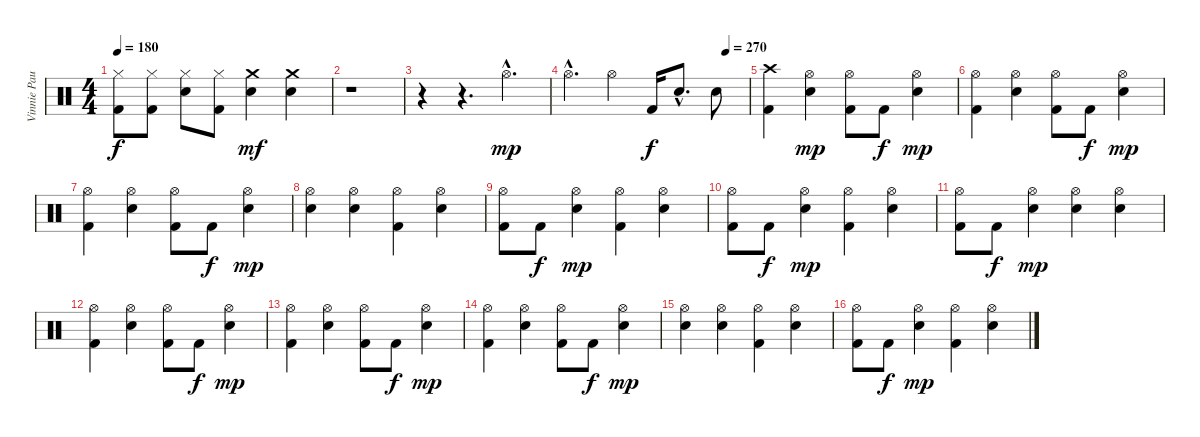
\track ("Vinnie Paul" "Vinnie Pau") {instrument percussion}
\staff {score}
\articulation defaults
\ts (4 4)
\tempo 180
\clef neutral
\ks c
("Hi-Hat (closed)" "Kick (hit) 2").8{dy f} ("Hi-Hat (closed)" "Kick (hit) 2").8 ("Hi-Hat (closed)" "Electric Snare (hit)").8 ("Hi-Hat (closed)" "Kick (hit) 2").8 ("Crash medium (hit)" "Electric Snare (hit)").4{dy mf} ("Crash medium (hit)" "Electric Snare (hit)").4 |
r.1 |
r.4 r.4{d} "Hi-Hat (open)"{hac}.4{d dy mp} |
\tempo (270 0.875)
"Hi-Hat (open)"{hac}.4{d} "Hi-Hat (open)".4 "Kick (hit) 2".16{dy f} "Electric Snare (hit)"{hac}.8{d} "Electric Snare (hit)".8 |
("Crash high (hit)" "Kick (hit) 2").4 ("Hi-Hat (open)" "Electric Snare (hit)").4{dy mp} ("Hi-Hat (open)" "Kick (hit) 2").8 "Kick (hit) 2".8{dy f} ("Hi-Hat (open)" "Electric Snare (hit)").4{dy mp} |
("Hi-Hat (open)" "Kick (hit) 2").4 ("Hi-Hat (open)" "Electric Snare (hit)").4 ("Hi-Hat (open)" "Kick (hit) 2").8 "Kick (hit) 2".8{dy f} ("Hi-Hat (open)" "Electric Snare (hit)").4{dy mp} |
("Hi-Hat (open)" "Kick (hit) 2").4 ("Hi-Hat (open)" "Electric Snare (hit)").4 ("Hi-Hat (open)" "Kick (hit) 2").8 "Kick (hit) 2".8{dy f} ("Hi-Hat (open)" "Electric Snare (hit)").4{dy mp} |
("Hi-Hat (open)" "Electric Snare (hit)").4 ("Hi-Hat (open)" "Electric Snare (hit)").4 ("Hi-Hat (open)" "Kick (hit) 2").4 ("Hi-Hat (open)" "Electric Snare (hit)").4 |
("Hi-Hat (open)" "Kick (hit) 2").8 "Kick (hit) 2".8{dy f} ("Hi-Hat (open)" "Electric Snare (hit)").4{dy mp} ("Hi-Hat (open)" "Kick (hit) 2").4 ("Hi-Hat (open)" "Electric Snare (hit)").4 |
("Hi-Hat (open)" "Kick (hit) 2").8 "Kick (hit) 2".8{dy f} ("Hi-Hat (open)" "Electric Snare (hit)").4{dy mp} ("Hi-Hat (open)" "Kick (hit) 2").4 ("Hi-Hat (open)" "Electric Snare (hit)").4 |
("Hi-Hat (open)" "Kick (hit) 2").8 "Kick (hit) 2".8{dy f} ("Hi-Hat (open)" "Electric Snare (hit)").4{dy mp} ("Hi-Hat (open)" "Electric Snare (hit)").4 ("Hi-Hat (open)" "Electric Snare (hit)").4 |
("Hi-Hat (open)" "Kick (hit) 2").4 ("Hi-Hat (open)" "Electric Snare (hit)").4 ("Hi-Hat (open)" "Kick (hit) 2").8 "Kick (hit) 2".8{dy f} ("Hi-Hat (open)" "Electric Snare (hit)").4{dy mp} |
("Hi-Hat (open)" "Kick (hit) 2").4 ("Hi-Hat (open)" "Electric Snare (hit)").4 ("Hi-Hat (open)" "Kick (hit) 2").8 "Kick (hit) 2".8{dy f} ("Hi-Hat (open)" "Electric Snare (hit)").4{dy mp} |
("Hi-Hat (open)" "Kick (hit) 2").4 ("Hi-Hat (open)" "Electric Snare (hit)").4 ("Hi-Hat (open)" "Kick (hit) 2").8 "Kick (hit) 2".8{dy f} ("Hi-Hat (open)" "Electric Snare (hit)").4{dy mp} |
("Hi-Hat (open)" "Electric Snare (hit)").4 ("Hi-Hat (open)" "Electric Snare (hit)").4 ("Hi-Hat (open)" "Kick (hit) 2").4 ("Hi-Hat (open)" "Electric Snare (hit)").4 |
("Hi-Hat (open)" "Kick (hit) 2").8 "Kick (hit) 2".8{dy f} ("Hi-Hat (open)" "Electric Snare (hit)").4{dy mp} ("Hi-Hat (open)" "Kick (hit) 2").4 ("Hi-Hat (open)" "Electric Snare (hit)").4
